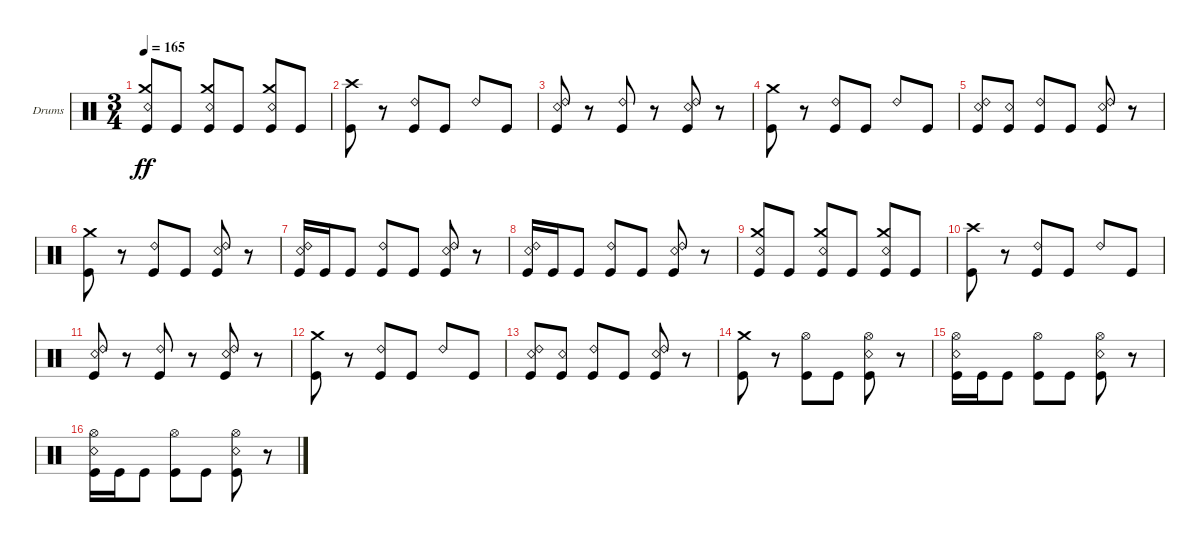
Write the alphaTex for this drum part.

\bracketExtendMode groupsimilarinstruments
\firstSystemTrackNameOrientation horizontal
\otherSystemsTrackNameOrientation horizontal
\track ("Kaleb - Drums" "Drums") {instrument percussion}
\staff {score}
\articulation defaults
\ts (3 4)
\tempo 165
\clef neutral
\ks c
("Kick (hit)" "Crash medium (hit)" "Snare (rim shot)").8{dy ff} "Kick (hit)".8 ("Kick (hit)" "Crash medium (hit)" "Snare (rim shot)").8 "Kick (hit)".8 ("Kick (hit)" "Crash medium (hit)" "Snare (rim shot)").8 "Kick (hit)".8 |
("Kick (hit)" "Crash high (hit)").8 r.8 ("Kick (hit)" "Ride (bell) 2").8 "Kick (hit)".8 "Ride (bell) 2".8 "Kick (hit)".8 |
("Kick (hit)" "Ride (bell) 2" "Snare (rim shot)").8 r.8 ("Kick (hit)" "Ride (bell) 2").8 r.8 ("Kick (hit)" "Ride (bell) 2" "Snare (rim shot)").8 r.8 |
("Kick (hit)" "Crash medium (hit)").8 r.8 ("Kick (hit)" "Ride (bell) 2").8 "Kick (hit)".8 "Ride (bell) 2".8 "Kick (hit)".8 |
("Kick (hit)" "Ride (bell) 2" "Snare (rim shot)").8 ("Kick (hit)" "Snare (rim shot)").8 ("Kick (hit)" "Ride (bell) 2").8 "Kick (hit)".8 ("Kick (hit)" "Ride (bell) 2" "Snare (rim shot)").8 r.8 |
("Kick (hit)" "Crash medium (hit)").8 r.8 ("Kick (hit)" "Ride (bell) 2").8 "Kick (hit)".8 ("Kick (hit)" "Snare (rim shot)" "Ride (bell) 2").8 r.8 |
("Kick (hit)" "Snare (rim shot)" "Ride (bell) 2").16 "Kick (hit)".16 "Kick (hit)".8 ("Kick (hit)" "Ride (bell) 2").8 "Kick (hit)".8 ("Kick (hit)" "Snare (rim shot)" "Ride (bell) 2").8 r.8 |
("Kick (hit)" "Snare (rim shot)" "Ride (bell) 2").16 "Kick (hit)".16 "Kick (hit)".8 ("Kick (hit)" "Ride (bell) 2").8 "Kick (hit)".8 ("Kick (hit)" "Snare (rim shot)" "Ride (bell) 2").8 r.8 |
("Kick (hit)" "Crash medium (hit)" "Snare (rim shot)").8 "Kick (hit)".8 ("Kick (hit)" "Crash medium (hit)" "Snare (rim shot)").8 "Kick (hit)".8 ("Kick (hit)" "Crash medium (hit)" "Snare (rim shot)").8 "Kick (hit)".8 |
("Kick (hit)" "Crash high (hit)").8 r.8 ("Kick (hit)" "Ride (bell) 2").8 "Kick (hit)".8 "Ride (bell) 2".8 "Kick (hit)".8 |
("Kick (hit)" "Ride (bell) 2" "Snare (rim shot)").8 r.8 ("Kick (hit)" "Ride (bell) 2").8 r.8 ("Kick (hit)" "Ride (bell) 2" "Snare (rim shot)").8 r.8 |
("Kick (hit)" "Crash medium (hit)").8 r.8 ("Kick (hit)" "Ride (bell) 2").8 "Kick (hit)".8 "Ride (bell) 2".8 "Kick (hit)".8 |
("Kick (hit)" "Ride (bell) 2" "Snare (rim shot)").8 ("Kick (hit)" "Snare (rim shot)").8 ("Kick (hit)" "Ride (bell) 2").8 "Kick (hit)".8 ("Kick (hit)" "Ride (bell) 2" "Snare (rim shot)").8 r.8 |
("Kick (hit)" "Crash medium (hit)").8 r.8 ("Kick (hit)" "Hi-Hat (open)").8 "Kick (hit)".8 ("Kick (hit)" "Hi-Hat (open)" "Snare (rim shot)").8 r.8 |
("Kick (hit)" "Hi-Hat (open)" "Snare (rim shot)").16 "Kick (hit)".16 "Kick (hit)".8 ("Kick (hit)" "Hi-Hat (open)").8 "Kick (hit)".8 ("Kick (hit)" "Hi-Hat (open)" "Snare (rim shot)").8 r.8 |
("Kick (hit)" "Hi-Hat (open)" "Snare (rim shot)").16 "Kick (hit)".16 "Kick (hit)".8 ("Kick (hit)" "Hi-Hat (open)").8 "Kick (hit)".8 ("Kick (hit)" "Hi-Hat (open)" "Snare (rim shot)").8 r.8
